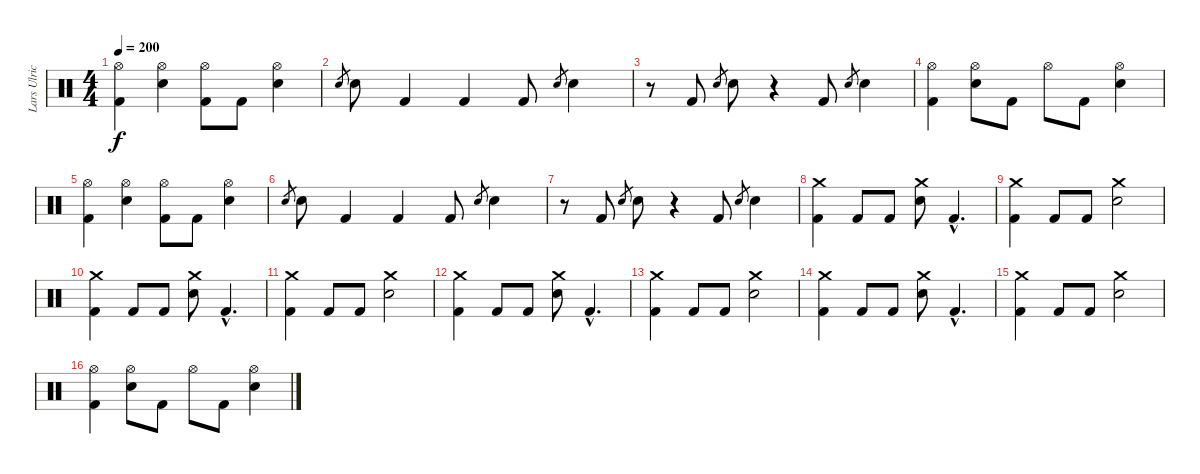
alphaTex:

\track ("Lars Ulrich" "Lars Ulric") {instrument percussion}
\staff {score}
\articulation defaults
\ts (4 4)
\tempo 200
\clef neutral
\ks c
("Hi-Hat (open)" "Kick (hit) 2").4{dy f} ("Hi-Hat (open)" "Electric Snare (hit)").4 ("Hi-Hat (open)" "Kick (hit) 2").8 "Kick (hit) 2".8 ("Hi-Hat (open)" "Electric Snare (hit)").4 |
"Electric Snare (hit)".8{gr} "Electric Snare (hit)".8 "Kick (hit) 2".4 "Kick (hit) 2".4 "Kick (hit) 2".8 "Electric Snare (hit)".8{gr} "Electric Snare (hit)".4 |
r.8 "Kick (hit) 2".8 "Electric Snare (hit)".8{gr} "Electric Snare (hit)".8 r.4 "Kick (hit) 2".8 "Electric Snare (hit)".8{gr} "Electric Snare (hit)".4 |
("Hi-Hat (open)" "Kick (hit) 2").4 ("Hi-Hat (open)" "Electric Snare (hit)").8 "Kick (hit) 2".8 "Hi-Hat (open)".8 "Kick (hit) 2".8 ("Hi-Hat (open)" "Electric Snare (hit)").4 |
("Hi-Hat (open)" "Kick (hit) 2").4 ("Hi-Hat (open)" "Electric Snare (hit)").4 ("Hi-Hat (open)" "Kick (hit) 2").8 "Kick (hit) 2".8 ("Hi-Hat (open)" "Electric Snare (hit)").4 |
"Electric Snare (hit)".8{gr} "Electric Snare (hit)".8 "Kick (hit) 2".4 "Kick (hit) 2".4 "Kick (hit) 2".8 "Electric Snare (hit)".8{gr} "Electric Snare (hit)".4 |
r.8 "Kick (hit) 2".8 "Electric Snare (hit)".8{gr} "Electric Snare (hit)".8 r.4 "Kick (hit) 2".8 "Electric Snare (hit)".8{gr} "Electric Snare (hit)".4 |
("Crash medium (hit)" "Kick (hit) 2").4 "Kick (hit) 2".8 "Kick (hit) 2".8 ("Crash medium (hit)" "Electric Snare (hit)").8 "Kick (hit) 2"{hac}.4{d} |
("Crash medium (hit)" "Kick (hit) 2").4 "Kick (hit) 2".8 "Kick (hit) 2".8 ("Crash medium (hit)" "Electric Snare (hit)").2 |
("Crash medium (hit)" "Kick (hit) 2").4 "Kick (hit) 2".8 "Kick (hit) 2".8 ("Crash medium (hit)" "Electric Snare (hit)").8 "Kick (hit) 2"{hac}.4{d} |
("Crash medium (hit)" "Kick (hit) 2").4 "Kick (hit) 2".8 "Kick (hit) 2".8 ("Crash medium (hit)" "Electric Snare (hit)").2 |
("Crash medium (hit)" "Kick (hit) 2").4 "Kick (hit) 2".8 "Kick (hit) 2".8 ("Crash medium (hit)" "Electric Snare (hit)").8 "Kick (hit) 2"{hac}.4{d} |
("Crash medium (hit)" "Kick (hit) 2").4 "Kick (hit) 2".8 "Kick (hit) 2".8 ("Crash medium (hit)" "Electric Snare (hit)").2 |
("Crash medium (hit)" "Kick (hit) 2").4 "Kick (hit) 2".8 "Kick (hit) 2".8 ("Crash medium (hit)" "Electric Snare (hit)").8 "Kick (hit) 2"{hac}.4{d} |
("Crash medium (hit)" "Kick (hit) 2").4 "Kick (hit) 2".8 "Kick (hit) 2".8 ("Crash medium (hit)" "Electric Snare (hit)").2 |
("Hi-Hat (open)" "Kick (hit) 2").4 ("Hi-Hat (open)" "Electric Snare (hit)").8 "Kick (hit) 2".8 "Hi-Hat (open)".8 "Kick (hit) 2".8 ("Hi-Hat (open)" "Electric Snare (hit)").4
